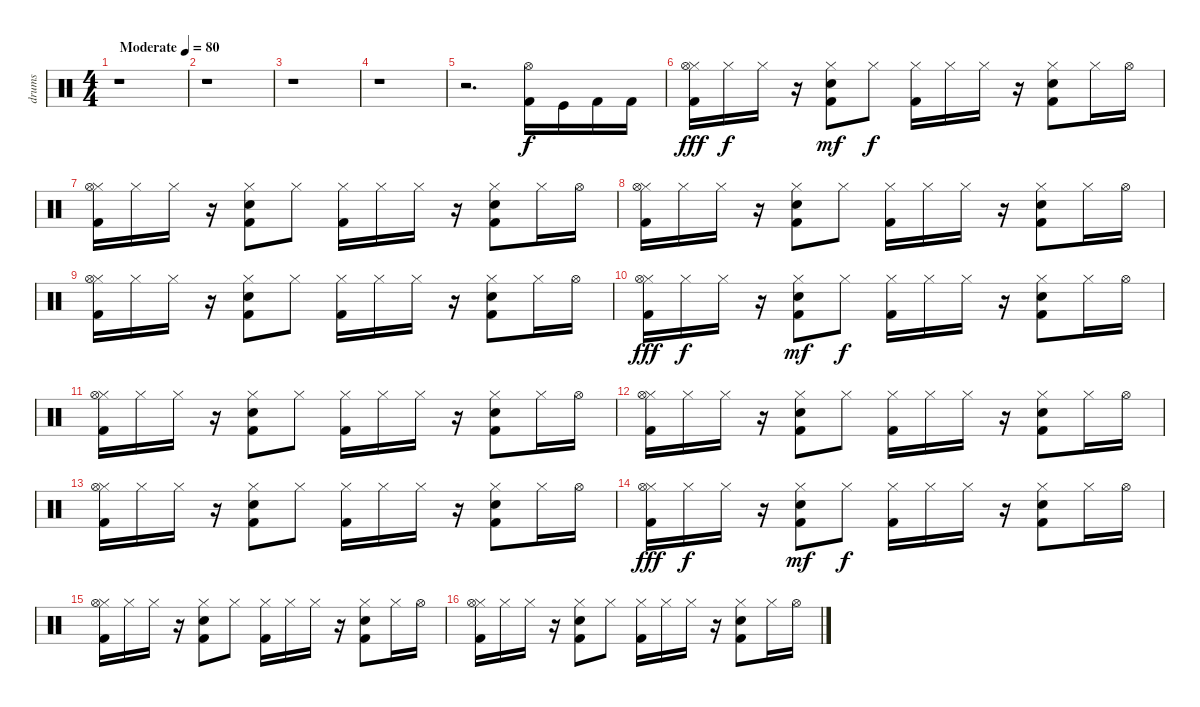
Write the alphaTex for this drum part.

\track ("drums" "drums") {instrument percussion}
\staff {score}
\articulation defaults
\ts (4 4)
\tempo (80 "Moderate")
\clef neutral
\ks c
r.1{dy f} |
r.1 |
r.1 |
r.1 |
r.2{d} ("Kick (hit) 2" "Hi-Hat (open)").16 "Kick (hit)".16 "Kick (hit) 2".16 "Kick (hit) 2".16 |
("Hi-Hat (closed)" "Hi-Hat (open)" "Kick (hit) 2").16{dy fff} "Hi-Hat (closed)".16{dy f} "Hi-Hat (closed)".16 r.16 ("Kick (hit) 2" "Snare (hit) 2" "Hi-Hat (closed)").8{dy mf} "Hi-Hat (closed)".8{dy f} ("Kick (hit) 2" "Hi-Hat (closed)").16 "Hi-Hat (closed)".16 "Hi-Hat (closed)".16 r.16 ("Kick (hit) 2" "Hi-Hat (closed)" "Snare (hit) 2").8 "Hi-Hat (closed)".16 "Hi-Hat (open)".16 |
("Hi-Hat (closed)" "Hi-Hat (open)" "Kick (hit) 2").16 "Hi-Hat (closed)".16 "Hi-Hat (closed)".16 r.16 ("Kick (hit) 2" "Snare (hit) 2" "Hi-Hat (closed)").8 "Hi-Hat (closed)".8 ("Kick (hit) 2" "Hi-Hat (closed)").16 "Hi-Hat (closed)".16 "Hi-Hat (closed)".16 r.16 ("Kick (hit) 2" "Hi-Hat (closed)" "Snare (hit) 2").8 "Hi-Hat (closed)".16 "Hi-Hat (open)".16 |
("Hi-Hat (closed)" "Hi-Hat (open)" "Kick (hit) 2").16 "Hi-Hat (closed)".16 "Hi-Hat (closed)".16 r.16 ("Kick (hit) 2" "Snare (hit) 2" "Hi-Hat (closed)").8 "Hi-Hat (closed)".8 ("Kick (hit) 2" "Hi-Hat (closed)").16 "Hi-Hat (closed)".16 "Hi-Hat (closed)".16 r.16 ("Kick (hit) 2" "Hi-Hat (closed)" "Snare (hit) 2").8 "Hi-Hat (closed)".16 "Hi-Hat (open)".16 |
("Hi-Hat (closed)" "Hi-Hat (open)" "Kick (hit) 2").16 "Hi-Hat (closed)".16 "Hi-Hat (closed)".16 r.16 ("Kick (hit) 2" "Snare (hit) 2" "Hi-Hat (closed)").8 "Hi-Hat (closed)".8 ("Kick (hit) 2" "Hi-Hat (closed)").16 "Hi-Hat (closed)".16 "Hi-Hat (closed)".16 r.16 ("Kick (hit) 2" "Hi-Hat (closed)" "Snare (hit) 2").8 "Hi-Hat (closed)".16 "Hi-Hat (open)".16 |
("Hi-Hat (closed)" "Hi-Hat (open)" "Kick (hit) 2").16{dy fff} "Hi-Hat (closed)".16{dy f} "Hi-Hat (closed)".16 r.16 ("Kick (hit) 2" "Snare (hit) 2" "Hi-Hat (closed)").8{dy mf} "Hi-Hat (closed)".8{dy f} ("Kick (hit) 2" "Hi-Hat (closed)").16 "Hi-Hat (closed)".16 "Hi-Hat (closed)".16 r.16 ("Kick (hit) 2" "Hi-Hat (closed)" "Snare (hit) 2").8 "Hi-Hat (closed)".16 "Hi-Hat (open)".16 |
("Hi-Hat (closed)" "Hi-Hat (open)" "Kick (hit) 2").16 "Hi-Hat (closed)".16 "Hi-Hat (closed)".16 r.16 ("Kick (hit) 2" "Snare (hit) 2" "Hi-Hat (closed)").8 "Hi-Hat (closed)".8 ("Kick (hit) 2" "Hi-Hat (closed)").16 "Hi-Hat (closed)".16 "Hi-Hat (closed)".16 r.16 ("Kick (hit) 2" "Hi-Hat (closed)" "Snare (hit) 2").8 "Hi-Hat (closed)".16 "Hi-Hat (open)".16 |
("Hi-Hat (closed)" "Hi-Hat (open)" "Kick (hit) 2").16 "Hi-Hat (closed)".16 "Hi-Hat (closed)".16 r.16 ("Kick (hit) 2" "Snare (hit) 2" "Hi-Hat (closed)").8 "Hi-Hat (closed)".8 ("Kick (hit) 2" "Hi-Hat (closed)").16 "Hi-Hat (closed)".16 "Hi-Hat (closed)".16 r.16 ("Kick (hit) 2" "Hi-Hat (closed)" "Snare (hit) 2").8 "Hi-Hat (closed)".16 "Hi-Hat (open)".16 |
("Hi-Hat (closed)" "Hi-Hat (open)" "Kick (hit) 2").16 "Hi-Hat (closed)".16 "Hi-Hat (closed)".16 r.16 ("Kick (hit) 2" "Snare (hit) 2" "Hi-Hat (closed)").8 "Hi-Hat (closed)".8 ("Kick (hit) 2" "Hi-Hat (closed)").16 "Hi-Hat (closed)".16 "Hi-Hat (closed)".16 r.16 ("Kick (hit) 2" "Hi-Hat (closed)" "Snare (hit) 2").8 "Hi-Hat (closed)".16 "Hi-Hat (open)".16 |
("Hi-Hat (closed)" "Hi-Hat (open)" "Kick (hit) 2").16{dy fff} "Hi-Hat (closed)".16{dy f} "Hi-Hat (closed)".16 r.16 ("Kick (hit) 2" "Snare (hit) 2" "Hi-Hat (closed)").8{dy mf} "Hi-Hat (closed)".8{dy f} ("Kick (hit) 2" "Hi-Hat (closed)").16 "Hi-Hat (closed)".16 "Hi-Hat (closed)".16 r.16 ("Kick (hit) 2" "Hi-Hat (closed)" "Snare (hit) 2").8 "Hi-Hat (closed)".16 "Hi-Hat (open)".16 |
("Hi-Hat (closed)" "Hi-Hat (open)" "Kick (hit) 2").16 "Hi-Hat (closed)".16 "Hi-Hat (closed)".16 r.16 ("Kick (hit) 2" "Snare (hit) 2" "Hi-Hat (closed)").8 "Hi-Hat (closed)".8 ("Kick (hit) 2" "Hi-Hat (closed)").16 "Hi-Hat (closed)".16 "Hi-Hat (closed)".16 r.16 ("Kick (hit) 2" "Hi-Hat (closed)" "Snare (hit) 2").8 "Hi-Hat (closed)".16 "Hi-Hat (open)".16 |
("Hi-Hat (closed)" "Hi-Hat (open)" "Kick (hit) 2").16 "Hi-Hat (closed)".16 "Hi-Hat (closed)".16 r.16 ("Kick (hit) 2" "Snare (hit) 2" "Hi-Hat (closed)").8 "Hi-Hat (closed)".8 ("Kick (hit) 2" "Hi-Hat (closed)").16 "Hi-Hat (closed)".16 "Hi-Hat (closed)".16 r.16 ("Kick (hit) 2" "Hi-Hat (closed)" "Snare (hit) 2").8 "Hi-Hat (closed)".16 "Hi-Hat (open)".16
